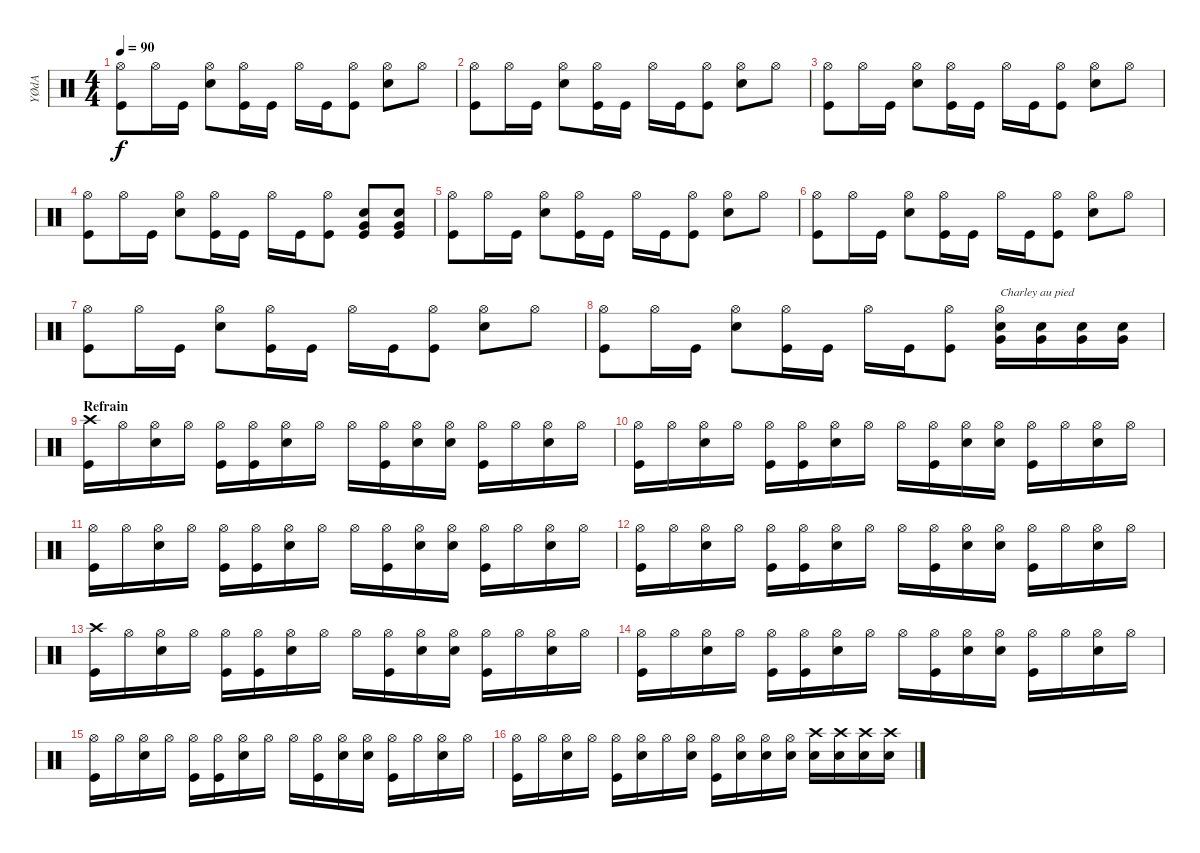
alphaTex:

\track ("YØdA" "YØdA") {instrument percussion}
\staff {score}
\articulation defaults
\ts (4 4)
\tempo 90
\clef neutral
\ks c
("Hi-Hat (open)" "Kick (hit)").8{dy f} "Hi-Hat (open)".16 "Kick (hit)".16 ("Hi-Hat (open)" "Electric Snare (hit)").8 ("Hi-Hat (open)" "Kick (hit)").16 "Kick (hit)".16 "Hi-Hat (open)".16 "Kick (hit)".16 ("Hi-Hat (open)" "Kick (hit)").8 ("Hi-Hat (open)" "Electric Snare (hit)").8 "Hi-Hat (open)".8 |
("Hi-Hat (open)" "Kick (hit)").8 "Hi-Hat (open)".16 "Kick (hit)".16 ("Hi-Hat (open)" "Electric Snare (hit)").8 ("Hi-Hat (open)" "Kick (hit)").16 "Kick (hit)".16 "Hi-Hat (open)".16 "Kick (hit)".16 ("Hi-Hat (open)" "Kick (hit)").8 ("Hi-Hat (open)" "Electric Snare (hit)").8 "Hi-Hat (open)".8 |
("Hi-Hat (open)" "Kick (hit)").8 "Hi-Hat (open)".16 "Kick (hit)".16 ("Hi-Hat (open)" "Electric Snare (hit)").8 ("Hi-Hat (open)" "Kick (hit)").16 "Kick (hit)".16 "Hi-Hat (open)".16 "Kick (hit)".16 ("Hi-Hat (open)" "Kick (hit)").8 ("Hi-Hat (open)" "Electric Snare (hit)").8 "Hi-Hat (open)".8 |
("Hi-Hat (open)" "Kick (hit)").8 "Hi-Hat (open)".16 "Kick (hit)".16 ("Hi-Hat (open)" "Electric Snare (hit)").8 ("Hi-Hat (open)" "Kick (hit)").16 "Kick (hit)".16 "Hi-Hat (open)".16 "Kick (hit)".16 ("Hi-Hat (open)" "Kick (hit)").8 ("Very Low Tom (hit)" "Electric Snare (hit)" "Kick (hit)").8 ("Very Low Tom (hit)" "Electric Snare (hit)" "Kick (hit)").8 |
("Hi-Hat (open)" "Kick (hit)").8 "Hi-Hat (open)".16 "Kick (hit)".16 ("Hi-Hat (open)" "Electric Snare (hit)").8 ("Hi-Hat (open)" "Kick (hit)").16 "Kick (hit)".16 "Hi-Hat (open)".16 "Kick (hit)".16 ("Hi-Hat (open)" "Kick (hit)").8 ("Hi-Hat (open)" "Electric Snare (hit)").8 "Hi-Hat (open)".8 |
("Hi-Hat (open)" "Kick (hit)").8 "Hi-Hat (open)".16 "Kick (hit)".16 ("Hi-Hat (open)" "Electric Snare (hit)").8 ("Hi-Hat (open)" "Kick (hit)").16 "Kick (hit)".16 "Hi-Hat (open)".16 "Kick (hit)".16 ("Hi-Hat (open)" "Kick (hit)").8 ("Hi-Hat (open)" "Electric Snare (hit)").8 "Hi-Hat (open)".8 |
("Hi-Hat (open)" "Kick (hit)").8 "Hi-Hat (open)".16 "Kick (hit)".16 ("Hi-Hat (open)" "Electric Snare (hit)").8 ("Hi-Hat (open)" "Kick (hit)").16 "Kick (hit)".16 "Hi-Hat (open)".16 "Kick (hit)".16 ("Hi-Hat (open)" "Kick (hit)").8 ("Hi-Hat (open)" "Electric Snare (hit)").8 "Hi-Hat (open)".8 |
("Hi-Hat (open)" "Kick (hit)").8 "Hi-Hat (open)".16 "Kick (hit)".16 ("Hi-Hat (open)" "Electric Snare (hit)").8 ("Hi-Hat (open)" "Kick (hit)").16 "Kick (hit)".16 "Hi-Hat (open)".16 "Kick (hit)".16 ("Hi-Hat (open)" "Kick (hit)").8 ("Hi-Hat (open)" "Very Low Tom (hit)" "Electric Snare (hit)").16{txt "Charley au pied"} ("Very Low Tom (hit)" "Electric Snare (hit)").16 ("Very Low Tom (hit)" "Electric Snare (hit)").16 ("Very Low Tom (hit)" "Electric Snare (hit)").16 |
\section ("" "Refrain")
("Crash high (hit)" "Kick (hit)").16 "Hi-Hat (open)".16 ("Hi-Hat (open)" "Electric Snare (hit)").16 "Hi-Hat (open)".16 ("Hi-Hat (open)" "Kick (hit)").16 ("Hi-Hat (open)" "Kick (hit)").16 ("Hi-Hat (open)" "Electric Snare (hit)").16 "Hi-Hat (open)".16 "Hi-Hat (open)".16 ("Hi-Hat (open)" "Kick (hit)").16 ("Hi-Hat (open)" "Electric Snare (hit)").16 ("Hi-Hat (open)" "Electric Snare (hit)").16 ("Hi-Hat (open)" "Kick (hit)").16 "Hi-Hat (open)".16 ("Hi-Hat (open)" "Electric Snare (hit)").16 "Hi-Hat (open)".16 |
("Hi-Hat (open)" "Kick (hit)").16 "Hi-Hat (open)".16 ("Hi-Hat (open)" "Electric Snare (hit)").16 "Hi-Hat (open)".16 ("Hi-Hat (open)" "Kick (hit)").16 ("Hi-Hat (open)" "Kick (hit)").16 ("Hi-Hat (open)" "Electric Snare (hit)").16 "Hi-Hat (open)".16 "Hi-Hat (open)".16 ("Hi-Hat (open)" "Kick (hit)").16 ("Hi-Hat (open)" "Electric Snare (hit)").16 ("Hi-Hat (open)" "Electric Snare (hit)").16 ("Hi-Hat (open)" "Kick (hit)").16 "Hi-Hat (open)".16 ("Hi-Hat (open)" "Electric Snare (hit)").16 "Hi-Hat (open)".16 |
("Hi-Hat (open)" "Kick (hit)").16 "Hi-Hat (open)".16 ("Hi-Hat (open)" "Electric Snare (hit)").16 "Hi-Hat (open)".16 ("Hi-Hat (open)" "Kick (hit)").16 ("Hi-Hat (open)" "Kick (hit)").16 ("Hi-Hat (open)" "Electric Snare (hit)").16 "Hi-Hat (open)".16 "Hi-Hat (open)".16 ("Hi-Hat (open)" "Kick (hit)").16 ("Hi-Hat (open)" "Electric Snare (hit)").16 ("Hi-Hat (open)" "Electric Snare (hit)").16 ("Hi-Hat (open)" "Kick (hit)").16 "Hi-Hat (open)".16 ("Hi-Hat (open)" "Electric Snare (hit)").16 "Hi-Hat (open)".16 |
("Hi-Hat (open)" "Kick (hit)").16 "Hi-Hat (open)".16 ("Hi-Hat (open)" "Electric Snare (hit)").16 "Hi-Hat (open)".16 ("Hi-Hat (open)" "Kick (hit)").16 ("Hi-Hat (open)" "Kick (hit)").16 ("Hi-Hat (open)" "Electric Snare (hit)").16 "Hi-Hat (open)".16 "Hi-Hat (open)".16 ("Hi-Hat (open)" "Kick (hit)").16 ("Hi-Hat (open)" "Electric Snare (hit)").16 ("Hi-Hat (open)" "Electric Snare (hit)").16 ("Hi-Hat (open)" "Kick (hit)").16 "Hi-Hat (open)".16 ("Hi-Hat (open)" "Electric Snare (hit)").16 "Hi-Hat (open)".16 |
("Crash high (hit)" "Kick (hit)").16 "Hi-Hat (open)".16 ("Hi-Hat (open)" "Electric Snare (hit)").16 "Hi-Hat (open)".16 ("Hi-Hat (open)" "Kick (hit)").16 ("Hi-Hat (open)" "Kick (hit)").16 ("Hi-Hat (open)" "Electric Snare (hit)").16 "Hi-Hat (open)".16 "Hi-Hat (open)".16 ("Hi-Hat (open)" "Kick (hit)").16 ("Hi-Hat (open)" "Electric Snare (hit)").16 ("Hi-Hat (open)" "Electric Snare (hit)").16 ("Hi-Hat (open)" "Kick (hit)").16 "Hi-Hat (open)".16 ("Hi-Hat (open)" "Electric Snare (hit)").16 "Hi-Hat (open)".16 |
("Hi-Hat (open)" "Kick (hit)").16 "Hi-Hat (open)".16 ("Hi-Hat (open)" "Electric Snare (hit)").16 "Hi-Hat (open)".16 ("Hi-Hat (open)" "Kick (hit)").16 ("Hi-Hat (open)" "Kick (hit)").16 ("Hi-Hat (open)" "Electric Snare (hit)").16 "Hi-Hat (open)".16 "Hi-Hat (open)".16 ("Hi-Hat (open)" "Kick (hit)").16 ("Hi-Hat (open)" "Electric Snare (hit)").16 ("Hi-Hat (open)" "Electric Snare (hit)").16 ("Hi-Hat (open)" "Kick (hit)").16 "Hi-Hat (open)".16 ("Hi-Hat (open)" "Electric Snare (hit)").16 "Hi-Hat (open)".16 |
("Hi-Hat (open)" "Kick (hit)").16 "Hi-Hat (open)".16 ("Hi-Hat (open)" "Electric Snare (hit)").16 "Hi-Hat (open)".16 ("Hi-Hat (open)" "Kick (hit)").16 ("Hi-Hat (open)" "Kick (hit)").16 ("Hi-Hat (open)" "Electric Snare (hit)").16 "Hi-Hat (open)".16 "Hi-Hat (open)".16 ("Hi-Hat (open)" "Kick (hit)").16 ("Hi-Hat (open)" "Electric Snare (hit)").16 ("Hi-Hat (open)" "Electric Snare (hit)").16 ("Hi-Hat (open)" "Kick (hit)").16 "Hi-Hat (open)".16 ("Hi-Hat (open)" "Electric Snare (hit)").16 "Hi-Hat (open)".16 |
("Hi-Hat (open)" "Kick (hit)").16 "Hi-Hat (open)".16 ("Hi-Hat (open)" "Electric Snare (hit)").16 "Hi-Hat (open)".16 ("Hi-Hat (open)" "Kick (hit)").16 ("Hi-Hat (open)" "Electric Snare (hit)").16 "Hi-Hat (open)".16 ("Hi-Hat (open)" "Electric Snare (hit)").16 ("Hi-Hat (open)" "Kick (hit)").16 ("Hi-Hat (open)" "Electric Snare (hit)").16 ("Hi-Hat (open)" "Electric Snare (hit)").16 ("Hi-Hat (open)" "Electric Snare (hit)").16 ("Crash high (hit)" "Electric Snare (hit)").16 ("Crash high (hit)" "Electric Snare (hit)").16 ("Crash high (hit)" "Electric Snare (hit)").16 ("Crash high (hit)" "Electric Snare (hit)").16
